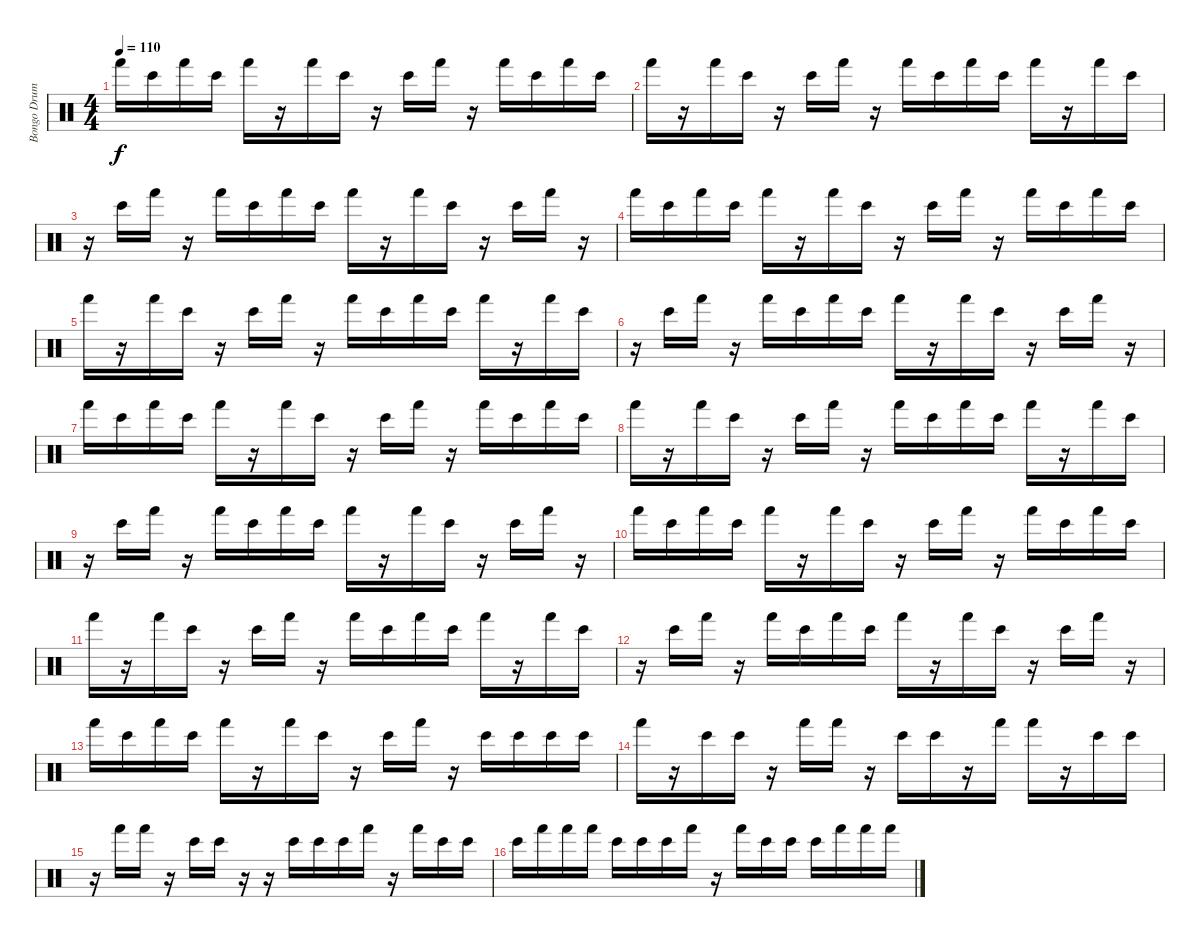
\track ("Bongo Drums" "Bongo Drum") {instrument percussion}
\staff {score}
\articulation defaults
\ts (4 4)
\tempo 110
\clef neutral
\ks c "Hand (hit)".16{dy f} "Bongo High (hit)".16 "Hand (hit)".16 "Bongo High (hit)".16 "Hand (hit)".16
r.16 "Hand (hit)".16 "Bongo High (hit)".16 r.16 "Bongo High (hit)".16 "Hand (hit)".16 r.16 "Hand (hit)".16 "Bongo High (hit)".16 "Hand (hit)".16 "Bongo High (hit)".16 |
"Hand (hit)".16 r.16 "Hand (hit)".16 "Bongo High (hit)".16 r.16 "Bongo High (hit)".16 "Hand (hit)".16 r.16 "Hand (hit)".16 "Bongo High (hit)".16 "Hand (hit)".16 "Bongo High (hit)".16 "Hand (hit)".16 r.16 "Hand (hit)".16 "Bongo High (hit)".16 |
r.16 "Bongo High (hit)".16 "Hand (hit)".16 r.16 "Hand (hit)".16 "Bongo High (hit)".16 "Hand (hit)".16 "Bongo High (hit)".16 "Hand (hit)".16 r.16 "Hand (hit)".16 "Bongo High (hit)".16 r.16 "Bongo High (hit)".16 "Hand (hit)".16 r.16 |
"Hand (hit)".16 "Bongo High (hit)".16 "Hand (hit)".16 "Bongo High (hit)".16 "Hand (hit)".16 r.16 "Hand (hit)".16 "Bongo High (hit)".16 r.16 "Bongo High (hit)".16 "Hand (hit)".16 r.16 "Hand (hit)".16 "Bongo High (hit)".16 "Hand (hit)".16 "Bongo High (hit)".16 |
"Hand (hit)".16 r.16 "Hand (hit)".16 "Bongo High (hit)".16 r.16 "Bongo High (hit)".16 "Hand (hit)".16 r.16 "Hand (hit)".16 "Bongo High (hit)".16 "Hand (hit)".16 "Bongo High (hit)".16 "Hand (hit)".16 r.16 "Hand (hit)".16 "Bongo High (hit)".16 |
r.16 "Bongo High (hit)".16 "Hand (hit)".16 r.16 "Hand (hit)".16 "Bongo High (hit)".16 "Hand (hit)".16 "Bongo High (hit)".16 "Hand (hit)".16 r.16 "Hand (hit)".16 "Bongo High (hit)".16 r.16 "Bongo High (hit)".16 "Hand (hit)".16 r.16 |
"Hand (hit)".16 "Bongo High (hit)".16 "Hand (hit)".16 "Bongo High (hit)".16 "Hand (hit)".16 r.16 "Hand (hit)".16 "Bongo High (hit)".16 r.16 "Bongo High (hit)".16 "Hand (hit)".16 r.16 "Hand (hit)".16 "Bongo High (hit)".16 "Hand (hit)".16 "Bongo High (hit)".16 |
"Hand (hit)".16 r.16 "Hand (hit)".16 "Bongo High (hit)".16 r.16 "Bongo High (hit)".16 "Hand (hit)".16 r.16 "Hand (hit)".16 "Bongo High (hit)".16 "Hand (hit)".16 "Bongo High (hit)".16 "Hand (hit)".16 r.16 "Hand (hit)".16 "Bongo High (hit)".16 |
r.16 "Bongo High (hit)".16 "Hand (hit)".16 r.16 "Hand (hit)".16 "Bongo High (hit)".16 "Hand (hit)".16 "Bongo High (hit)".16 "Hand (hit)".16 r.16 "Hand (hit)".16 "Bongo High (hit)".16 r.16 "Bongo High (hit)".16 "Hand (hit)".16 r.16 |
"Hand (hit)".16 "Bongo High (hit)".16 "Hand (hit)".16 "Bongo High (hit)".16 "Hand (hit)".16 r.16 "Hand (hit)".16 "Bongo High (hit)".16 r.16 "Bongo High (hit)".16 "Hand (hit)".16 r.16 "Hand (hit)".16 "Bongo High (hit)".16 "Hand (hit)".16 "Bongo High (hit)".16 |
"Hand (hit)".16 r.16 "Hand (hit)".16 "Bongo High (hit)".16 r.16 "Bongo High (hit)".16 "Hand (hit)".16 r.16 "Hand (hit)".16 "Bongo High (hit)".16 "Hand (hit)".16 "Bongo High (hit)".16 "Hand (hit)".16 r.16 "Hand (hit)".16 "Bongo High (hit)".16 |
r.16 "Bongo High (hit)".16 "Hand (hit)".16 r.16 "Hand (hit)".16 "Bongo High (hit)".16 "Hand (hit)".16 "Bongo High (hit)".16 "Hand (hit)".16 r.16 "Hand (hit)".16 "Bongo High (hit)".16 r.16 "Bongo High (hit)".16 "Hand (hit)".16 r.16 |
"Hand (hit)".16 "Bongo High (hit)".16 "Hand (hit)".16 "Bongo High (hit)".16 "Hand (hit)".16 r.16 "Hand (hit)".16 "Bongo High (hit)".16 r.16 "Bongo High (hit)".16 "Hand (hit)".16 r.16 "Bongo High (hit)".16 "Bongo High (hit)".16 "Bongo High (hit)".16 "Bongo High (hit)".16 |
"Hand (hit)".16 r.16 "Bongo High (hit)".16 "Bongo High (hit)".16 r.16 "Hand (hit)".16 "Hand (hit)".16 r.16 "Bongo High (hit)".16 "Bongo High (hit)".16 r.16 "Hand (hit)".16 "Hand (hit)".16 r.16 "Bongo High (hit)".16 "Bongo High (hit)".16 |
r.16 "Hand (hit)".16 "Hand (hit)".16 r.16 "Bongo High (hit)".16 "Bongo High (hit)".16 r.16 r.16 "Bongo High (hit)".16 "Bongo High (hit)".16 "Bongo High (hit)".16 "Hand (hit)".16 r.16 "Hand (hit)".16 "Bongo High (hit)".16 "Bongo High (hit)".16 |
"Bongo High (hit)".16 "Hand (hit)".16 "Hand (hit)".16 "Hand (hit)".16 "Bongo High (hit)".16 "Bongo High (hit)".16 "Bongo High (hit)".16 "Hand (hit)".16 r.16 "Hand (hit)".16 "Bongo High (hit)".16 "Bongo High (hit)".16 "Bongo High (hit)".16 "Hand (hit)".16 "Hand (hit)".16 "Hand (hit)".16
